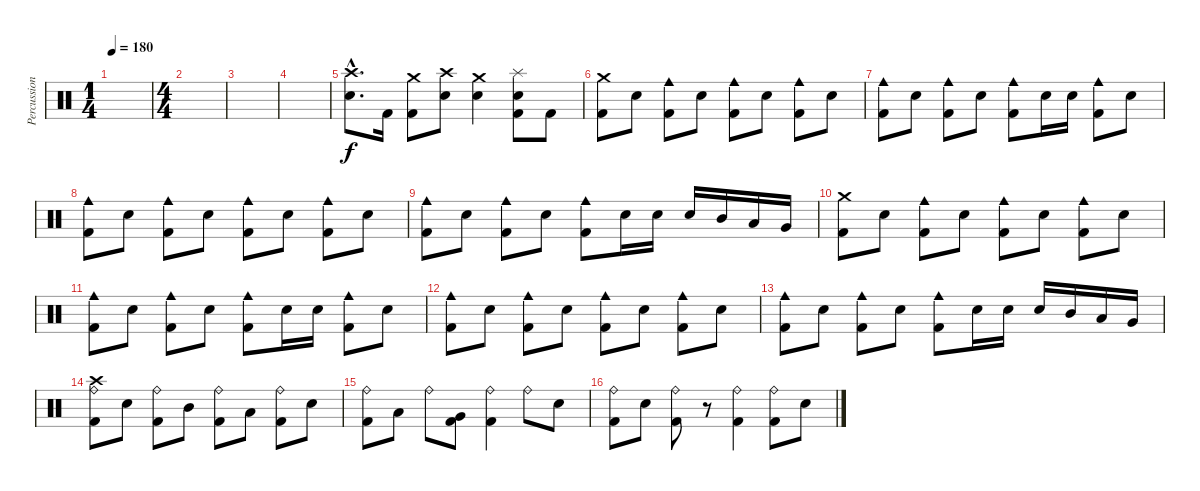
\track ("Percussion" "Percussion") {instrument percussion}
\staff {score}
\articulation defaults
\ts (1 4)
\tempo 180
\clef neutral
\ks c
|
\ts (4 4)
|
|
|
("Crash high (hit)"{hac} "Snare (hit) 2"{hac}).8{d} "Kick (hit) 2".16 ("Crash medium (hit)" "Kick (hit) 2").8 ("Crash high (hit)" "Snare (hit) 2").8 ("Crash medium (hit)" "Snare (hit) 2").4 ("Splash (hit)" "Snare (hit) 2" "Kick (hit) 2").8 "Kick (hit) 2".8 |
("Crash medium (hit)" "Kick (hit) 2").8 "Snare (hit) 2".8 ("Cowbell medium (hit)" "Kick (hit) 2").8 "Snare (hit) 2".8 ("Cowbell medium (hit)" "Kick (hit) 2").8 "Snare (hit) 2".8 ("Cowbell medium (hit)" "Kick (hit) 2").8 "Snare (hit) 2".8 |
("Cowbell medium (hit)" "Kick (hit) 2").8 "Snare (hit) 2".8 ("Cowbell medium (hit)" "Kick (hit) 2").8 "Snare (hit) 2".8 ("Cowbell medium (hit)" "Kick (hit) 2").8 "Snare (hit) 2".16 "Snare (hit) 2".16 ("Cowbell medium (hit)" "Kick (hit) 2").8 "Snare (hit) 2".8 |
("Cowbell medium (hit)" "Kick (hit) 2").8 "Snare (hit) 2".8 ("Cowbell medium (hit)" "Kick (hit) 2").8 "Snare (hit) 2".8 ("Cowbell medium (hit)" "Kick (hit) 2").8 "Snare (hit) 2".8 ("Cowbell medium (hit)" "Kick (hit) 2").8 "Snare (hit) 2".8 |
("Cowbell medium (hit)" "Kick (hit) 2").8 "Snare (hit) 2".8 ("Cowbell medium (hit)" "Kick (hit) 2").8 "Snare (hit) 2".8 ("Cowbell medium (hit)" "Kick (hit) 2").8 "Snare (hit) 2".16 "Snare (hit) 2".16 "Snare (hit) 2".16 "Mid Tom (hit)".16 "Low Tom (hit)".16 "Very Low Tom (hit)".16 |
("Crash medium (hit)" "Kick (hit) 2").8 "Snare (hit) 2".8 ("Cowbell medium (hit)" "Kick (hit) 2").8 "Snare (hit) 2".8 ("Cowbell medium (hit)" "Kick (hit) 2").8 "Snare (hit) 2".8 ("Cowbell medium (hit)" "Kick (hit) 2").8 "Snare (hit) 2".8 |
("Cowbell medium (hit)" "Kick (hit) 2").8 "Snare (hit) 2".8 ("Cowbell medium (hit)" "Kick (hit) 2").8 "Snare (hit) 2".8 ("Cowbell medium (hit)" "Kick (hit) 2").8 "Snare (hit) 2".16 "Snare (hit) 2".16 ("Cowbell medium (hit)" "Kick (hit) 2").8 "Snare (hit) 2".8 |
("Cowbell medium (hit)" "Kick (hit) 2").8 "Snare (hit) 2".8 ("Cowbell medium (hit)" "Kick (hit) 2").8 "Snare (hit) 2".8 ("Cowbell medium (hit)" "Kick (hit) 2").8 "Snare (hit) 2".8 ("Cowbell medium (hit)" "Kick (hit) 2").8 "Snare (hit) 2".8 |
("Cowbell medium (hit)" "Kick (hit) 2").8 "Snare (hit) 2".8 ("Cowbell medium (hit)" "Kick (hit) 2").8 "Snare (hit) 2".8 ("Cowbell medium (hit)" "Kick (hit) 2").8 "Snare (hit) 2".16 "Snare (hit) 2".16 "Snare (hit) 2".16 "Mid Tom (hit)".16 "Low Tom (hit)".16 "Very Low Tom (hit)".16 |
("Crash high (hit)" "Ride (bell)" "Kick (hit) 2").8 "Snare (hit) 2".8 ("Ride (bell)" "Kick (hit) 2").8 "Mid Tom (hit)".8 ("Ride (bell)" "Kick (hit) 2").8 "Low Tom (hit)".8 ("Ride (bell)" "Kick (hit) 2").8 "Snare (hit) 2".8 |
("Ride (bell)" "Kick (hit) 2").8 "Low Tom (hit)".8 "Ride (bell)".8 ("Very Low Tom (hit)" "Kick (hit) 2").8 ("Ride (bell)" "Kick (hit) 2").4 "Ride (bell)".8 "Snare (hit) 2".8 |
("Ride (bell)" "Kick (hit) 2").8 "Snare (hit) 2".8 ("Ride (bell)" "Kick (hit) 2").8 r.8 ("Ride (bell)" "Kick (hit) 2").4 ("Ride (bell)" "Kick (hit) 2").8 "Snare (hit) 2".8
